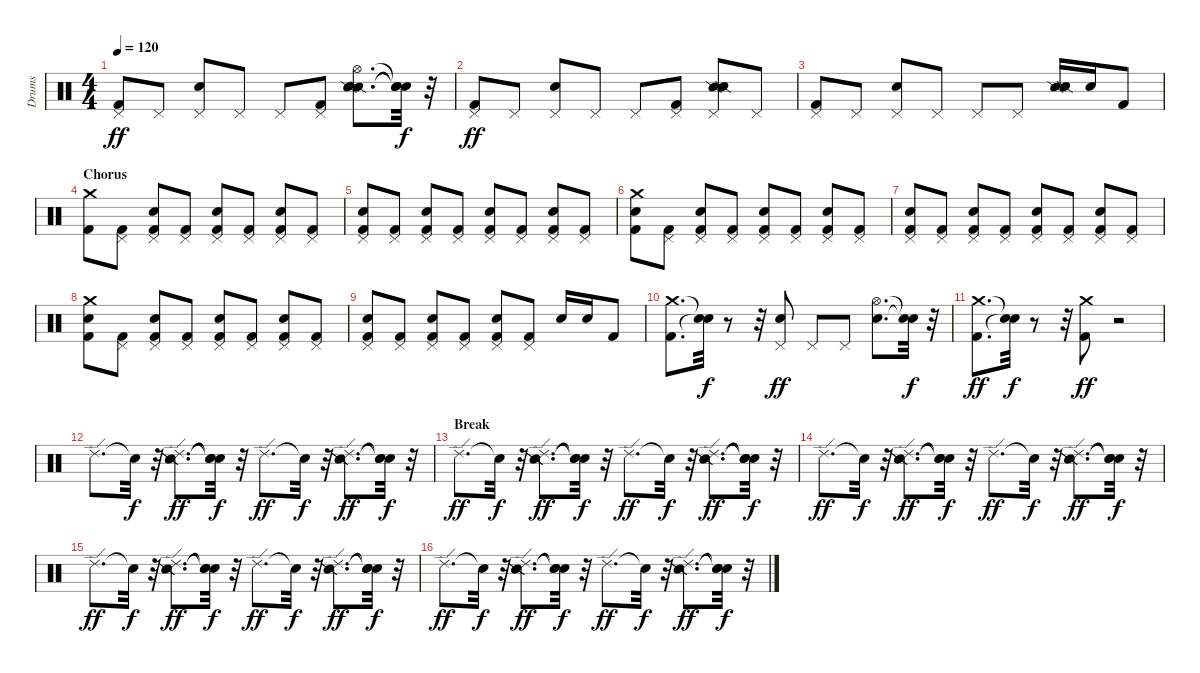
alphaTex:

\track ("Drums" "Drums") {instrument percussion}
\staff {score}
\articulation defaults
\ts (4 4)
\tempo 120
\clef neutral
\ks c
("Pedal Hi-Hat (hit)" "Kick (hit) 2").8{dy ff} "Pedal Hi-Hat (hit)".8 ("Pedal Hi-Hat (hit)" "Snare (hit) 2").8 "Pedal Hi-Hat (hit)".8 "Pedal Hi-Hat (hit)".8 ("Pedal Hi-Hat (hit)" "Kick (hit) 2").8 ("Snare (side stick) 2" "Snare (side stick) 2" "Hi-Hat (open)" "Snare (hit) 2").8{d} ("Snare (hit)"{t} "Snare (hit)"{t} "Snare (hit)"{t} "Snare (hit)"{t}).32{dy f} r.32 |
("Pedal Hi-Hat (hit)" "Kick (hit) 2").8{dy ff} "Pedal Hi-Hat (hit)".8 ("Pedal Hi-Hat (hit)" "Snare (hit) 2").8 "Pedal Hi-Hat (hit)".8 "Pedal Hi-Hat (hit)".8 ("Pedal Hi-Hat (hit)" "Kick (hit) 2").8 ("Snare (side stick) 2" "Snare (side stick) 2" "Pedal Hi-Hat (hit)" "Snare (hit) 2").8 "Pedal Hi-Hat (hit)".8 |
("Pedal Hi-Hat (hit)" "Kick (hit) 2").8 "Pedal Hi-Hat (hit)".8 ("Pedal Hi-Hat (hit)" "Snare (hit) 2").8 "Pedal Hi-Hat (hit)".8 "Pedal Hi-Hat (hit)".8 "Pedal Hi-Hat (hit)".8 ("Snare (side stick) 2" "Snare (side stick) 2" "Snare (hit) 2").16 "Snare (hit) 2".16 "Kick (hit) 2".8 |
\section ("" "Chorus")
("Crash medium (hit)" "Kick (hit) 2").8 ("Pedal Hi-Hat (hit)" "Kick (hit) 2").8 ("Pedal Hi-Hat (hit)" "Snare (hit) 2" "Kick (hit) 2").8 ("Pedal Hi-Hat (hit)" "Kick (hit) 2").8 ("Pedal Hi-Hat (hit)" "Snare (hit) 2" "Kick (hit) 2").8 ("Pedal Hi-Hat (hit)" "Kick (hit) 2").8 ("Pedal Hi-Hat (hit)" "Snare (hit) 2" "Kick (hit) 2").8 ("Pedal Hi-Hat (hit)" "Kick (hit) 2").8 |
("Pedal Hi-Hat (hit)" "Snare (hit) 2" "Kick (hit) 2").8 ("Pedal Hi-Hat (hit)" "Kick (hit) 2").8 ("Pedal Hi-Hat (hit)" "Snare (hit) 2" "Kick (hit) 2").8 ("Pedal Hi-Hat (hit)" "Kick (hit) 2").8 ("Pedal Hi-Hat (hit)" "Snare (hit) 2" "Kick (hit) 2").8 ("Pedal Hi-Hat (hit)" "Kick (hit) 2").8 ("Pedal Hi-Hat (hit)" "Snare (hit) 2" "Kick (hit) 2").8 ("Pedal Hi-Hat (hit)" "Kick (hit) 2").8 |
("Crash medium (hit)" "Snare (hit) 2" "Kick (hit) 2").8 ("Pedal Hi-Hat (hit)" "Kick (hit) 2").8 ("Pedal Hi-Hat (hit)" "Snare (hit) 2" "Kick (hit) 2").8 ("Pedal Hi-Hat (hit)" "Kick (hit) 2").8 ("Pedal Hi-Hat (hit)" "Snare (hit) 2" "Kick (hit) 2").8 ("Pedal Hi-Hat (hit)" "Kick (hit) 2").8 ("Pedal Hi-Hat (hit)" "Snare (hit) 2" "Kick (hit) 2").8 ("Pedal Hi-Hat (hit)" "Kick (hit) 2").8 |
("Pedal Hi-Hat (hit)" "Snare (hit) 2" "Kick (hit) 2").8 ("Pedal Hi-Hat (hit)" "Kick (hit) 2").8 ("Pedal Hi-Hat (hit)" "Snare (hit) 2" "Kick (hit) 2").8 ("Pedal Hi-Hat (hit)" "Kick (hit) 2").8 ("Pedal Hi-Hat (hit)" "Snare (hit) 2" "Kick (hit) 2").8 ("Pedal Hi-Hat (hit)" "Kick (hit) 2").8 ("Pedal Hi-Hat (hit)" "Snare (hit) 2" "Kick (hit) 2").8 ("Pedal Hi-Hat (hit)" "Kick (hit) 2").8 |
("Crash medium (hit)" "Snare (hit) 2" "Kick (hit) 2").8 ("Pedal Hi-Hat (hit)" "Kick (hit) 2").8 ("Pedal Hi-Hat (hit)" "Snare (hit) 2" "Kick (hit) 2").8 ("Pedal Hi-Hat (hit)" "Kick (hit) 2").8 ("Pedal Hi-Hat (hit)" "Snare (hit) 2" "Kick (hit) 2").8 ("Pedal Hi-Hat (hit)" "Kick (hit) 2").8 ("Pedal Hi-Hat (hit)" "Snare (hit) 2" "Kick (hit) 2").8 ("Pedal Hi-Hat (hit)" "Kick (hit) 2").8 |
("Pedal Hi-Hat (hit)" "Snare (hit) 2" "Kick (hit) 2").8 ("Pedal Hi-Hat (hit)" "Kick (hit) 2").8 ("Pedal Hi-Hat (hit)" "Snare (hit) 2" "Kick (hit) 2").8 ("Pedal Hi-Hat (hit)" "Kick (hit) 2").8 ("Pedal Hi-Hat (hit)" "Snare (hit) 2" "Kick (hit) 2").8 ("Pedal Hi-Hat (hit)" "Kick (hit) 2").8 "Snare (hit) 2".16 "Snare (hit) 2".16 "Kick (hit) 2".8 |
("Crash medium (hit)" "Kick (hit) 2").8{d} ("Snare (hit)"{t} "Snare (hit)"{t}).32{dy f} r.8 r.32 ("Pedal Hi-Hat (hit)" "Snare (hit) 2").8{dy ff} "Pedal Hi-Hat (hit)".8 "Pedal Hi-Hat (hit)".8 ("Hi-Hat (open)" "Snare (hit) 2").8{d} ("Snare (hit)"{t} "Snare (hit)"{t}).32{dy f} r.32 |
("Crash medium (hit)" "Kick (hit) 2").8{d dy ff} ("Snare (hit)"{t} "Snare (hit)"{t}).32{dy f} r.8 r.32 ("Crash medium (hit)" "Kick (hit) 2").8{dy ff} r.2 |
"Ride (edge) 2".8{d} "Snare (hit)"{t}.32{dy f} r.32 ("Snare (side stick) 2" "Snare (side stick) 2" "Ride (edge) 2").8{d dy ff} ("Snare (hit)"{t} "Snare (hit)"{t} "Snare (hit)"{t}).32{dy f} r.32 "Ride (edge) 2".8{d dy ff} "Snare (hit)"{t}.32{dy f} r.32 ("Snare (side stick) 2" "Snare (side stick) 2" "Ride (edge) 2").8{d dy ff} ("Snare (hit)"{t} "Snare (hit)"{t} "Snare (hit)"{t}).32{dy f} r.32 |
\section ("" "Break")
"Ride (edge) 2".8{d dy ff} "Snare (hit)"{t}.32{dy f} r.32 ("Snare (side stick) 2" "Snare (side stick) 2" "Ride (edge) 2").8{d dy ff} ("Snare (hit)"{t} "Snare (hit)"{t} "Snare (hit)"{t}).32{dy f} r.32 "Ride (edge) 2".8{d dy ff} "Snare (hit)"{t}.32{dy f} r.32 ("Snare (side stick) 2" "Snare (side stick) 2" "Ride (edge) 2").8{d dy ff} ("Snare (hit)"{t} "Snare (hit)"{t} "Snare (hit)"{t}).32{dy f} r.32 |
"Ride (edge) 2".8{d dy ff} "Snare (hit)"{t}.32{dy f} r.32 ("Snare (side stick) 2" "Snare (side stick) 2" "Ride (edge) 2").8{d dy ff} ("Snare (hit)"{t} "Snare (hit)"{t} "Snare (hit)"{t}).32{dy f} r.32 "Ride (edge) 2".8{d dy ff} "Snare (hit)"{t}.32{dy f} r.32 ("Snare (side stick) 2" "Snare (side stick) 2" "Ride (edge) 2").8{d dy ff} ("Snare (hit)"{t} "Snare (hit)"{t} "Snare (hit)"{t}).32{dy f} r.32 |
"Ride (edge) 2".8{d dy ff} "Snare (hit)"{t}.32{dy f} r.32 ("Snare (side stick) 2" "Snare (side stick) 2" "Ride (edge) 2").8{d dy ff} ("Snare (hit)"{t} "Snare (hit)"{t} "Snare (hit)"{t}).32{dy f} r.32 "Ride (edge) 2".8{d dy ff} "Snare (hit)"{t}.32{dy f} r.32 ("Snare (side stick) 2" "Snare (side stick) 2" "Ride (edge) 2").8{d dy ff} ("Snare (hit)"{t} "Snare (hit)"{t} "Snare (hit)"{t}).32{dy f} r.32 |
"Ride (edge) 2".8{d dy ff} "Snare (hit)"{t}.32{dy f} r.32 ("Snare (side stick) 2" "Snare (side stick) 2" "Ride (edge) 2").8{d dy ff} ("Snare (hit)"{t} "Snare (hit)"{t} "Snare (hit)"{t}).32{dy f} r.32 "Ride (edge) 2".8{d dy ff} "Snare (hit)"{t}.32{dy f} r.32 ("Snare (side stick) 2" "Snare (side stick) 2" "Ride (edge) 2").8{d dy ff} ("Snare (hit)"{t} "Snare (hit)"{t} "Snare (hit)"{t}).32{dy f} r.32
